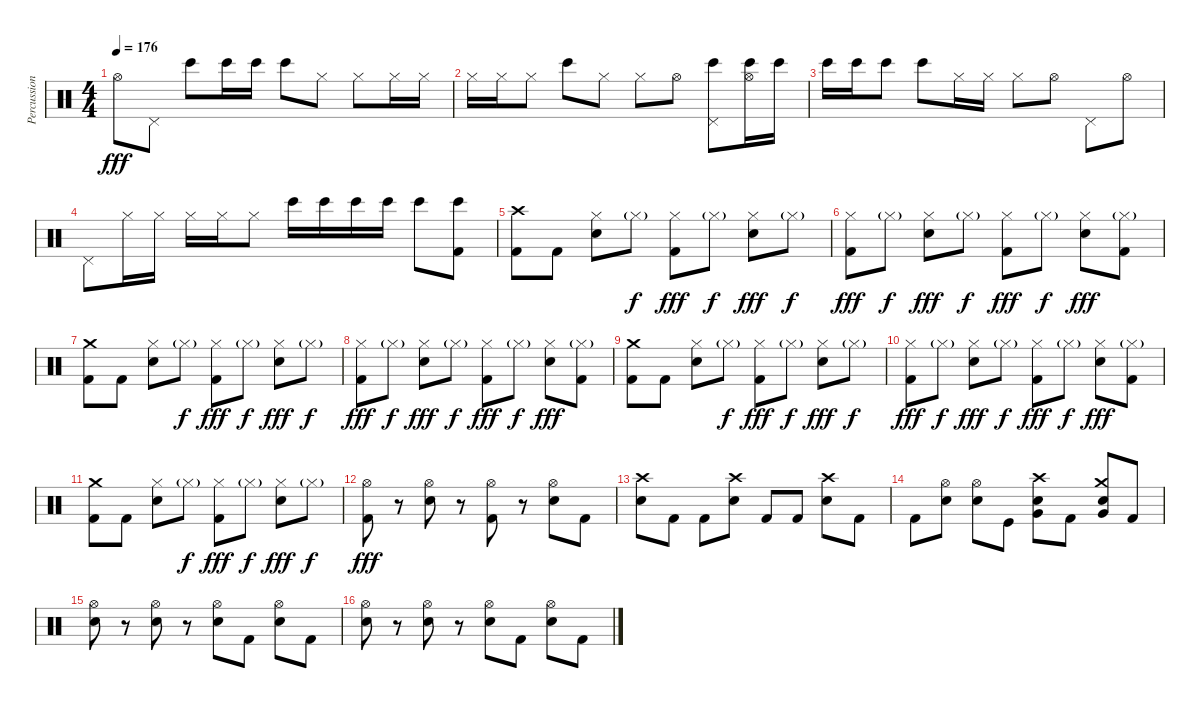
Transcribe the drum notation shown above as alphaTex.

\track ("Percussion" "Percussion") {instrument percussion}
\staff {score}
\articulation defaults
\ts (4 4)
\tempo 176
\clef neutral
\ks c "Hi-Hat (open)".8{dy fff} "Pedal Hi-Hat (hit)".8 "Bongo High (hit)".8 "Bongo High (hit)".16 "Bongo High (hit)".16 "Bongo High (hit)".8 "Hi-Hat (closed)".8 "Hi-Hat (closed)".8 "Hi-Hat (closed)".16 "Hi-Hat (closed)".16
|
"Hi-Hat (closed)".16 "Hi-Hat (closed)".16 "Hi-Hat (closed)".8 "Bongo High (hit)".8 "Hi-Hat (closed)".8 "Hi-Hat (closed)".8 "Hi-Hat (open)".8 ("Pedal Hi-Hat (hit)" "Bongo High (hit)").8 ("Hi-Hat (open)" "Bongo High (hit)").16 "Bongo High (hit)".16 |
"Bongo High (hit)".16 "Bongo High (hit)".16 "Bongo High (hit)".8 "Bongo High (hit)".8 "Hi-Hat (closed)".16 "Hi-Hat (closed)".16 "Hi-Hat (closed)".8 "Hi-Hat (open)".8 "Pedal Hi-Hat (hit)".8 "Hi-Hat (open)".8 |
"Pedal Hi-Hat (hit)".8 "Hi-Hat (closed)".16 "Hi-Hat (closed)".16 "Hi-Hat (closed)".16 "Hi-Hat (closed)".16 "Hi-Hat (closed)".8 "Bongo High (hit)".16 "Bongo High (hit)".16 "Bongo High (hit)".16 "Bongo High (hit)".16 "Bongo High (hit)".8 ("Bongo High (hit)" "Kick (hit) 2").8 |
("Crash high (hit)" "Kick (hit) 2").8 "Kick (hit) 2".8 ("Hi-Hat (closed)" "Snare (hit) 2").8 "Hi-Hat (closed)"{g}.8{dy f} ("Hi-Hat (closed)" "Kick (hit) 2").8{dy fff} "Hi-Hat (closed)"{g}.8{dy f} ("Hi-Hat (closed)" "Snare (hit) 2").8{dy fff} "Hi-Hat (closed)"{g}.8{dy f} |
("Hi-Hat (closed)" "Kick (hit) 2").8{dy fff} "Hi-Hat (closed)"{g}.8{dy f} ("Hi-Hat (closed)" "Snare (hit) 2").8{dy fff} "Hi-Hat (closed)"{g}.8{dy f} ("Hi-Hat (closed)" "Kick (hit) 2").8{dy fff} "Hi-Hat (closed)"{g}.8{dy f} ("Hi-Hat (closed)" "Snare (hit) 2").8{dy fff} ("Hi-Hat (closed)"{g} "Kick (hit) 2").8 |
("Crash medium (hit)" "Kick (hit) 2").8 "Kick (hit) 2".8 ("Hi-Hat (closed)" "Snare (hit) 2").8 "Hi-Hat (closed)"{g}.8{dy f} ("Hi-Hat (closed)" "Kick (hit) 2").8{dy fff} "Hi-Hat (closed)"{g}.8{dy f} ("Hi-Hat (closed)" "Snare (hit) 2").8{dy fff} "Hi-Hat (closed)"{g}.8{dy f} |
("Hi-Hat (closed)" "Kick (hit) 2").8{dy fff} "Hi-Hat (closed)"{g}.8{dy f} ("Hi-Hat (closed)" "Snare (hit) 2").8{dy fff} "Hi-Hat (closed)"{g}.8{dy f} ("Hi-Hat (closed)" "Kick (hit) 2").8{dy fff} "Hi-Hat (closed)"{g}.8{dy f} ("Hi-Hat (closed)" "Snare (hit) 2").8{dy fff} ("Hi-Hat (closed)"{g} "Kick (hit) 2").8 |
("Crash medium (hit)" "Kick (hit) 2").8 "Kick (hit) 2".8 ("Hi-Hat (closed)" "Snare (hit) 2").8 "Hi-Hat (closed)"{g}.8{dy f} ("Hi-Hat (closed)" "Kick (hit) 2").8{dy fff} "Hi-Hat (closed)"{g}.8{dy f} ("Hi-Hat (closed)" "Snare (hit) 2").8{dy fff} "Hi-Hat (closed)"{g}.8{dy f} |
("Hi-Hat (closed)" "Kick (hit) 2").8{dy fff} "Hi-Hat (closed)"{g}.8{dy f} ("Hi-Hat (closed)" "Snare (hit) 2").8{dy fff} "Hi-Hat (closed)"{g}.8{dy f} ("Hi-Hat (closed)" "Kick (hit) 2").8{dy fff} "Hi-Hat (closed)"{g}.8{dy f} ("Hi-Hat (closed)" "Snare (hit) 2").8{dy fff} ("Hi-Hat (closed)"{g} "Kick (hit) 2").8 |
("Crash medium (hit)" "Kick (hit) 2").8 "Kick (hit) 2".8 ("Hi-Hat (closed)" "Snare (hit) 2").8 "Hi-Hat (closed)"{g}.8{dy f} ("Hi-Hat (closed)" "Kick (hit) 2").8{dy fff} "Hi-Hat (closed)"{g}.8{dy f} ("Hi-Hat (closed)" "Snare (hit) 2").8{dy fff} "Hi-Hat (closed)"{g}.8{dy f} |
("Hi-Hat (open)" "Kick (hit) 2").8{dy fff} r.8 ("Hi-Hat (open)" "Snare (hit) 2").8 r.8 ("Hi-Hat (open)" "Kick (hit) 2").8 r.8 ("Hi-Hat (open)" "Snare (hit) 2").8 "Kick (hit) 2".8 |
("Crash high (hit)" "Snare (hit) 2").8 "Kick (hit) 2".8 "Kick (hit) 2".8 ("Crash high (hit)" "Snare (hit) 2").8 "Kick (hit) 2".8 "Kick (hit) 2".8 ("Crash high (hit)" "Snare (hit) 2").8 "Kick (hit) 2".8 |
"Kick (hit) 2".8 ("Hi-Hat (open)" "Snare (hit) 2").8 ("Hi-Hat (open)" "Snare (hit) 2").8 "Kick (hit)".8 ("Crash high (hit)" "Snare (hit) 2" "Very Low Tom (hit)").8 "Kick (hit) 2".8 ("Crash medium (hit)" "Snare (hit) 2" "Very Low Tom (hit)").8 "Kick (hit) 2".8 |
("Hi-Hat (open)" "Snare (hit) 2").8 r.8 ("Hi-Hat (open)" "Snare (hit) 2").8 r.8 ("Hi-Hat (open)" "Snare (hit) 2").8 "Kick (hit) 2".8 ("Hi-Hat (open)" "Snare (hit) 2").8 "Kick (hit) 2".8 |
("Hi-Hat (open)" "Snare (hit) 2").8 r.8 ("Hi-Hat (open)" "Snare (hit) 2").8 r.8 ("Hi-Hat (open)" "Snare (hit) 2").8 "Kick (hit) 2".8 ("Hi-Hat (open)" "Snare (hit) 2").8 "Kick (hit) 2".8
